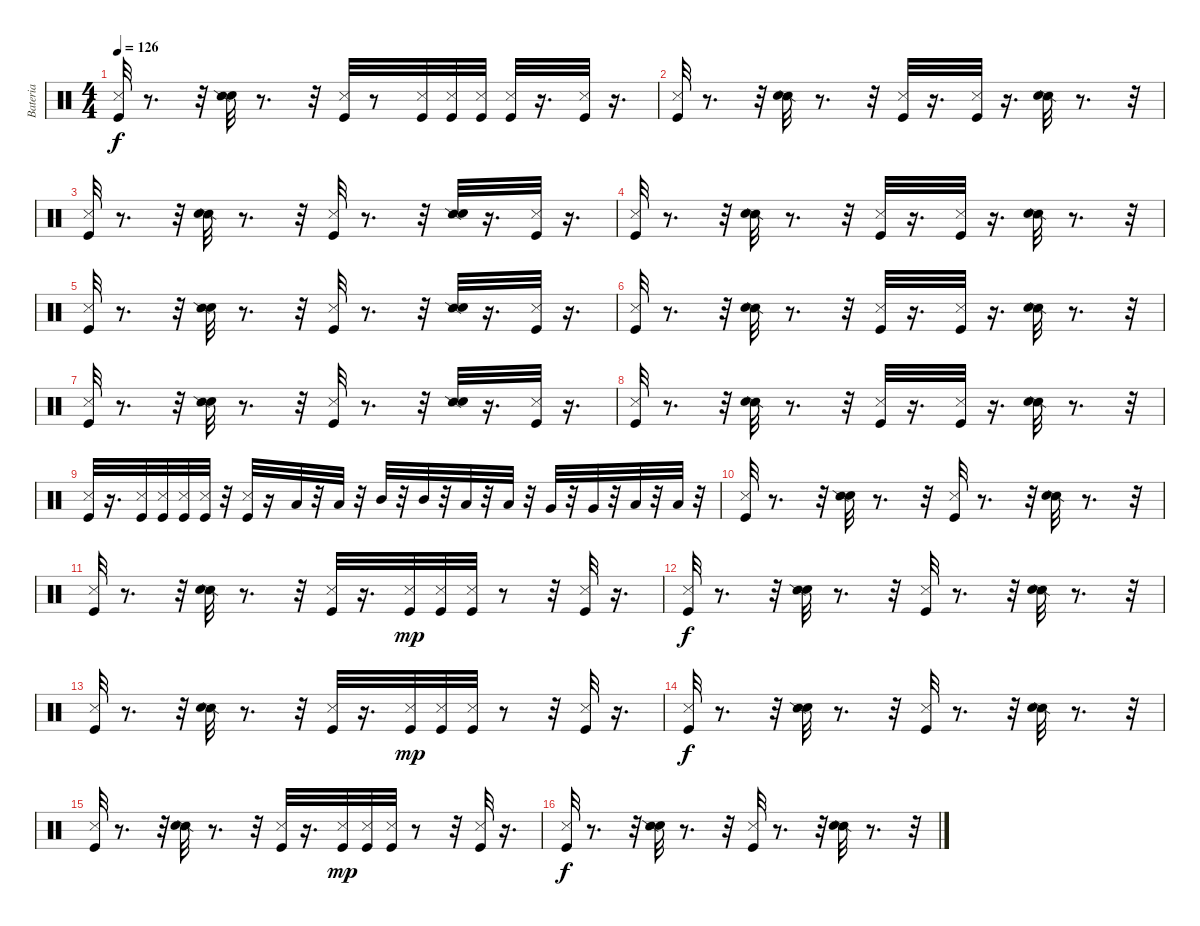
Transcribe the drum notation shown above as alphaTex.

\track ("Bateria" "Bateria") {instrument percussion}
\staff {score}
\articulation defaults
\ts (4 4)
\tempo 126
\clef neutral
\ks c
("Metronome (hit)" "Kick (hit)").32{dy f} r.8{d} r.32 ("Metronome (bell)" "Snare (side stick) 2").32 r.8{d} r.32 ("Metronome (hit)" "Kick (hit)").32 r.8 ("Kick (hit)" "Metronome (hit)").32 ("Metronome (hit)" "Kick (hit)").32 ("Metronome (hit)" "Kick (hit)").32 ("Kick (hit)" "Metronome (hit)").32 r.16{d} ("Kick (hit)" "Metronome (hit)").32 r.16{d} |
("Kick (hit)" "Metronome (hit)").32 r.8{d} r.32 ("Snare (side stick) 2" "Metronome (bell)").32 r.8{d} r.32 ("Metronome (hit)" "Kick (hit)").32 r.16{d} ("Kick (hit)" "Metronome (hit)").32 r.16{d} ("Snare (side stick) 2" "Metronome (bell)").32 r.8{d} r.32 |
("Metronome (hit)" "Kick (hit)").32 r.8{d} r.32 ("Snare (side stick) 2" "Metronome (bell)").32 r.8{d} r.32 ("Metronome (hit)" "Kick (hit)").32 r.8{d} r.32 ("Snare (side stick) 2" "Metronome (bell)").32 r.16{d} ("Kick (hit)" "Metronome (hit)").32 r.16{d} |
("Metronome (hit)" "Kick (hit)").32 r.8{d} r.32 ("Snare (side stick) 2" "Metronome (bell)").32 r.8{d} r.32 ("Metronome (hit)" "Kick (hit)").32 r.16{d} ("Metronome (hit)" "Kick (hit)").32 r.16{d} ("Snare (side stick) 2" "Metronome (bell)").32 r.8{d} r.32 |
("Metronome (hit)" "Kick (hit)").32 r.8{d} r.32 ("Metronome (bell)" "Snare (side stick) 2").32 r.8{d} r.32 ("Metronome (hit)" "Kick (hit)").32 r.8{d} r.32 ("Snare (side stick) 2" "Metronome (bell)").32 r.16{d} ("Metronome (hit)" "Kick (hit)").32 r.16{d} |
("Metronome (hit)" "Kick (hit)").32 r.8{d} r.32 ("Snare (side stick) 2" "Metronome (bell)").32 r.8{d} r.32 ("Metronome (hit)" "Kick (hit)").32 r.16{d} ("Metronome (hit)" "Kick (hit)").32 r.16{d} ("Snare (side stick) 2" "Metronome (bell)").32 r.8{d} r.32 |
("Metronome (hit)" "Kick (hit)").32 r.8{d} r.32 ("Metronome (bell)" "Snare (side stick) 2").32 r.8{d} r.32 ("Metronome (hit)" "Kick (hit)").32 r.8{d} r.32 ("Snare (side stick) 2" "Metronome (bell)").32 r.16{d} ("Metronome (hit)" "Kick (hit)").32 r.16{d} |
("Metronome (hit)" "Kick (hit)").32 r.8{d} r.32 ("Snare (side stick) 2" "Metronome (bell)").32 r.8{d} r.32 ("Metronome (hit)" "Kick (hit)").32 r.16{d} ("Metronome (hit)" "Kick (hit)").32 r.16{d} ("Snare (side stick) 2" "Metronome (bell)").32 r.8{d} r.32 |
("Metronome (hit)" "Kick (hit)").32 r.16{d} ("Metronome (hit)" "Kick (hit)").32 ("Kick (hit)" "Metronome (hit)").32 ("Metronome (hit)" "Kick (hit)").32 ("Kick (hit)" "Metronome (hit)").32 r.32 ("Metronome (hit)" "Kick (hit)").32 r.16 "Low Tom (hit)".32 r.32 "Low Tom (hit)".32 r.32 "Mid Tom (hit)".32 r.32 "Mid Tom (hit)".32 r.32 "Low Tom (hit)".32 r.32 "Low Tom (hit)".32 r.32 "Very Low Tom (hit)".32 r.32 "Very Low Tom (hit)".32 r.32 "Low Floor Tom (hit)".32 r.32 "Low Floor Tom (hit)".32 r.32 |
("Kick (hit)" "Metronome (hit)").32 r.8{d} r.32 ("Metronome (bell)" "Snare (side stick) 2").32 r.8{d} r.32 ("Metronome (hit)" "Kick (hit)").32 r.8{d} r.32 ("Snare (side stick) 2" "Metronome (bell)").32 r.8{d} r.32 |
("Metronome (hit)" "Kick (hit)").32 r.8{d} r.32 ("Snare (side stick) 2" "Metronome (bell)").32 r.8{d} r.32 ("Metronome (hit)" "Kick (hit)").32 r.16{d} ("Metronome (hit)" "Kick (hit)").32{dy mp} ("Kick (hit)" "Metronome (hit)").32 ("Metronome (hit)" "Kick (hit)").32 r.8 r.32 ("Metronome (hit)" "Kick (hit)").32 r.16{d} |
("Kick (hit)" "Metronome (hit)").32{dy f} r.8{d} r.32 ("Metronome (bell)" "Snare (side stick) 2").32 r.8{d} r.32 ("Metronome (hit)" "Kick (hit)").32 r.8{d} r.32 ("Snare (side stick) 2" "Metronome (bell)").32 r.8{d} r.32 |
("Metronome (hit)" "Kick (hit)").32 r.8{d} r.32 ("Snare (side stick) 2" "Metronome (bell)").32 r.8{d} r.32 ("Metronome (hit)" "Kick (hit)").32 r.16{d} ("Metronome (hit)" "Kick (hit)").32{dy mp} ("Kick (hit)" "Metronome (hit)").32 ("Metronome (hit)" "Kick (hit)").32 r.8 r.32 ("Metronome (hit)" "Kick (hit)").32 r.16{d} |
("Kick (hit)" "Metronome (hit)").32{dy f} r.8{d} r.32 ("Metronome (bell)" "Snare (side stick) 2").32 r.8{d} r.32 ("Metronome (hit)" "Kick (hit)").32 r.8{d} r.32 ("Snare (side stick) 2" "Metronome (bell)").32 r.8{d} r.32 |
("Metronome (hit)" "Kick (hit)").32 r.8{d} r.32 ("Snare (side stick) 2" "Metronome (bell)").32 r.8{d} r.32 ("Metronome (hit)" "Kick (hit)").32 r.16{d} ("Metronome (hit)" "Kick (hit)").32{dy mp} ("Kick (hit)" "Metronome (hit)").32 ("Metronome (hit)" "Kick (hit)").32 r.8 r.32 ("Metronome (hit)" "Kick (hit)").32 r.16{d} |
("Kick (hit)" "Metronome (hit)").32{dy f} r.8{d} r.32 ("Metronome (bell)" "Snare (side stick) 2").32 r.8{d} r.32 ("Metronome (hit)" "Kick (hit)").32 r.8{d} r.32 ("Snare (side stick) 2" "Metronome (bell)").32 r.8{d} r.32
